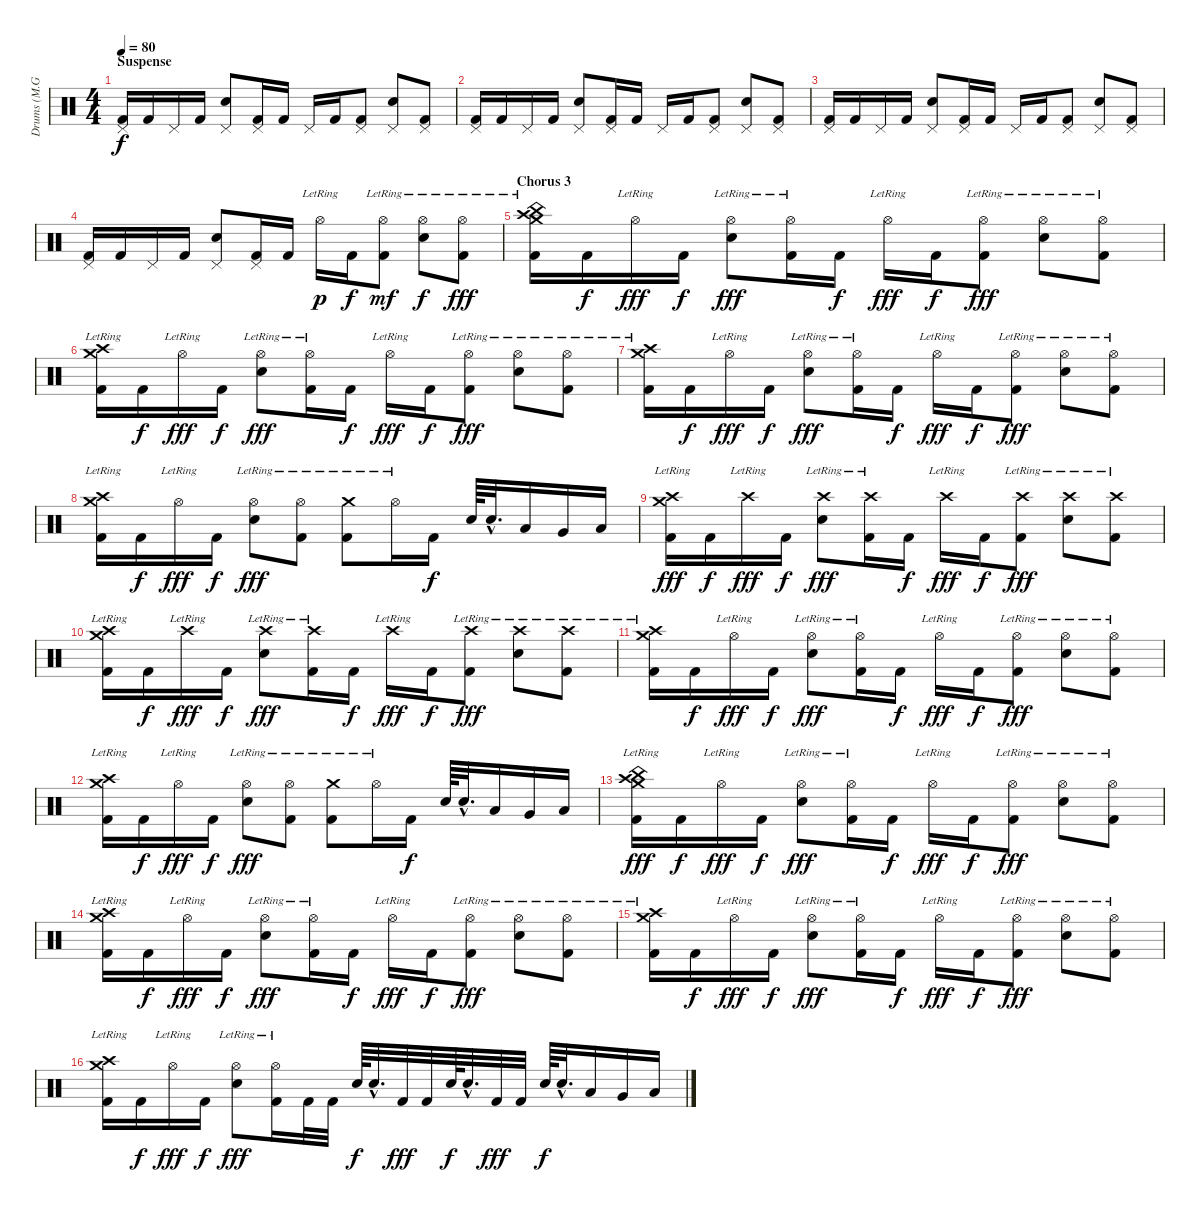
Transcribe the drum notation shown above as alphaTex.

\track ("Drums (M.Grosskopf)" "Drums (M.G") {instrument percussion}
\staff {score}
\articulation defaults
\ts (4 4)
\section ("" "Suspense")
\tempo 80
\clef neutral
\ks c
("Pedal Hi-Hat (hit)" "Kick (hit) 2").16{dy f} "Kick (hit) 2".16 "Pedal Hi-Hat (hit)".16 "Kick (hit) 2".16 ("Pedal Hi-Hat (hit)" "Electric Snare (hit)").8 ("Pedal Hi-Hat (hit)" "Kick (hit) 2").16 "Kick (hit) 2".16 "Pedal Hi-Hat (hit)".16 "Kick (hit) 2".16 ("Pedal Hi-Hat (hit)" "Kick (hit) 2").8 ("Pedal Hi-Hat (hit)" "Electric Snare (hit)").8 ("Pedal Hi-Hat (hit)" "Kick (hit) 2").8 |
("Pedal Hi-Hat (hit)" "Kick (hit) 2").16 "Kick (hit) 2".16 "Pedal Hi-Hat (hit)".16 "Kick (hit) 2".16 ("Pedal Hi-Hat (hit)" "Electric Snare (hit)").8 ("Pedal Hi-Hat (hit)" "Kick (hit) 2").16 "Kick (hit) 2".16 "Pedal Hi-Hat (hit)".16 "Kick (hit) 2".16 ("Pedal Hi-Hat (hit)" "Kick (hit) 2").8 ("Pedal Hi-Hat (hit)" "Electric Snare (hit)").8 ("Pedal Hi-Hat (hit)" "Kick (hit) 2").8 |
("Pedal Hi-Hat (hit)" "Kick (hit) 2").16 "Kick (hit) 2".16 "Pedal Hi-Hat (hit)".16 "Kick (hit) 2".16 ("Pedal Hi-Hat (hit)" "Electric Snare (hit)").8 ("Pedal Hi-Hat (hit)" "Kick (hit) 2").16 "Kick (hit) 2".16 "Pedal Hi-Hat (hit)".16 "Kick (hit) 2".16 ("Pedal Hi-Hat (hit)" "Kick (hit) 2").8 ("Pedal Hi-Hat (hit)" "Electric Snare (hit)").8 ("Pedal Hi-Hat (hit)" "Kick (hit) 2").8 |
("Pedal Hi-Hat (hit)" "Kick (hit) 2").16 "Kick (hit) 2".16 "Pedal Hi-Hat (hit)".16 "Kick (hit) 2".16 ("Pedal Hi-Hat (hit)" "Electric Snare (hit)").8 ("Pedal Hi-Hat (hit)" "Kick (hit) 2").16 "Kick (hit) 2".16 "Hi-Hat (open)"{lr}.16{dy p} "Kick (hit) 2".16{dy f} ("Hi-Hat (open)"{lr} "Kick (hit) 2").8{dy mf} ("Hi-Hat (open)"{lr} "Electric Snare (hit)").8{dy f} ("Hi-Hat (open)"{lr} "Kick (hit) 2").8{dy fff} |
\section ("" "Chorus 3")
("Crash high (hit)"{lr} "Crash medium (hit)"{lr} "Kick (hit) 2" "China (hit)"{lr}).16 "Kick (hit) 2".16{dy f} "Hi-Hat (open)"{lr}.16{dy fff} "Kick (hit) 2".16{dy f} ("Hi-Hat (open)"{lr} "Electric Snare (hit)").8{dy fff} ("Hi-Hat (open)"{lr} "Kick (hit) 2").16 "Kick (hit) 2".16{dy f} "Hi-Hat (open)"{lr}.16{dy fff} "Kick (hit) 2".16{dy f} ("Hi-Hat (open)"{lr} "Kick (hit) 2").8{dy fff} ("Hi-Hat (open)"{lr} "Electric Snare (hit)").8 ("Hi-Hat (open)"{lr} "Kick (hit) 2").8 |
("Crash high (hit)"{lr} "Crash medium (hit)"{lr} "Kick (hit) 2").16 "Kick (hit) 2".16{dy f} "Hi-Hat (open)"{lr}.16{dy fff} "Kick (hit) 2".16{dy f} ("Hi-Hat (open)"{lr} "Electric Snare (hit)").8{dy fff} ("Hi-Hat (open)"{lr} "Kick (hit) 2").16 "Kick (hit) 2".16{dy f} "Hi-Hat (open)"{lr}.16{dy fff} "Kick (hit) 2".16{dy f} ("Hi-Hat (open)"{lr} "Kick (hit) 2").8{dy fff} ("Hi-Hat (open)"{lr} "Electric Snare (hit)").8 ("Hi-Hat (open)"{lr} "Kick (hit) 2").8 |
("Crash high (hit)"{lr} "Crash medium (hit)"{lr} "Kick (hit) 2").16 "Kick (hit) 2".16{dy f} "Hi-Hat (open)"{lr}.16{dy fff} "Kick (hit) 2".16{dy f} ("Hi-Hat (open)"{lr} "Electric Snare (hit)").8{dy fff} ("Hi-Hat (open)"{lr} "Kick (hit) 2").16 "Kick (hit) 2".16{dy f} "Hi-Hat (open)"{lr}.16{dy fff} "Kick (hit) 2".16{dy f} ("Hi-Hat (open)"{lr} "Kick (hit) 2").8{dy fff} ("Hi-Hat (open)"{lr} "Electric Snare (hit)").8 ("Hi-Hat (open)"{lr} "Kick (hit) 2").8 |
("Crash high (hit)"{lr} "Crash medium (hit)"{lr} "Kick (hit) 2").16 "Kick (hit) 2".16{dy f} "Hi-Hat (open)"{lr}.16{dy fff} "Kick (hit) 2".16{dy f} ("Hi-Hat (open)"{lr} "Electric Snare (hit)").8{dy fff} ("Hi-Hat (open)"{lr} "Kick (hit) 2").8 ("Crash medium (hit)"{lr} "Kick (hit) 2").8 "Hi-Hat (open)"{lr}.16 "Kick (hit) 2".16{dy f} "Electric Snare (hit)".64 "Electric Snare (hit)"{hac}.32{d} "Low Tom (hit)".16 "Very Low Tom (hit)".16 "Low Floor Tom (hit)".16 |
("Crash high (hit)"{lr} "Crash medium (hit)"{lr} "Kick (hit) 2").16{dy fff} "Kick (hit) 2".16{dy f} "Crash high (hit)"{lr}.16{dy fff} "Kick (hit) 2".16{dy f} ("Crash high (hit)"{lr} "Electric Snare (hit)").8{dy fff} ("Crash high (hit)"{lr} "Kick (hit) 2").16 "Kick (hit) 2".16{dy f} "Crash high (hit)"{lr}.16{dy fff} "Kick (hit) 2".16{dy f} ("Crash high (hit)"{lr} "Kick (hit) 2").8{dy fff} ("Crash high (hit)"{lr} "Electric Snare (hit)").8 ("Crash high (hit)"{lr} "Kick (hit) 2").8 |
("Crash high (hit)"{lr} "Crash medium (hit)"{lr} "Kick (hit) 2").16 "Kick (hit) 2".16{dy f} "Crash high (hit)"{lr}.16{dy fff} "Kick (hit) 2".16{dy f} ("Crash high (hit)"{lr} "Electric Snare (hit)").8{dy fff} ("Crash high (hit)"{lr} "Kick (hit) 2").16 "Kick (hit) 2".16{dy f} "Crash high (hit)"{lr}.16{dy fff} "Kick (hit) 2".16{dy f} ("Crash high (hit)"{lr} "Kick (hit) 2").8{dy fff} ("Crash high (hit)"{lr} "Electric Snare (hit)").8 ("Crash high (hit)"{lr} "Kick (hit) 2").8 |
("Crash high (hit)"{lr} "Crash medium (hit)"{lr} "Kick (hit) 2").16 "Kick (hit) 2".16{dy f} "Hi-Hat (open)"{lr}.16{dy fff} "Kick (hit) 2".16{dy f} ("Hi-Hat (open)"{lr} "Electric Snare (hit)").8{dy fff} ("Hi-Hat (open)"{lr} "Kick (hit) 2").16 "Kick (hit) 2".16{dy f} "Hi-Hat (open)"{lr}.16{dy fff} "Kick (hit) 2".16{dy f} ("Hi-Hat (open)"{lr} "Kick (hit) 2").8{dy fff} ("Hi-Hat (open)"{lr} "Electric Snare (hit)").8 ("Hi-Hat (open)"{lr} "Kick (hit) 2").8 |
("Crash high (hit)"{lr} "Crash medium (hit)"{lr} "Kick (hit) 2").16 "Kick (hit) 2".16{dy f} "Hi-Hat (open)"{lr}.16{dy fff} "Kick (hit) 2".16{dy f} ("Hi-Hat (open)"{lr} "Electric Snare (hit)").8{dy fff} ("Hi-Hat (open)"{lr} "Kick (hit) 2").8 ("Crash medium (hit)"{lr} "Kick (hit) 2").8 "Hi-Hat (open)"{lr}.16 "Kick (hit) 2".16{dy f} "Electric Snare (hit)".64 "Electric Snare (hit)"{hac}.32{d} "Low Tom (hit)".16 "Very Low Tom (hit)".16 "Low Floor Tom (hit)".16 |
("Crash high (hit)"{lr} "Crash medium (hit)"{lr} "Kick (hit) 2" "China (hit)"{lr}).16{dy fff} "Kick (hit) 2".16{dy f} "Hi-Hat (open)"{lr}.16{dy fff} "Kick (hit) 2".16{dy f} ("Hi-Hat (open)"{lr} "Electric Snare (hit)").8{dy fff} ("Hi-Hat (open)"{lr} "Kick (hit) 2").16 "Kick (hit) 2".16{dy f} "Hi-Hat (open)"{lr}.16{dy fff} "Kick (hit) 2".16{dy f} ("Hi-Hat (open)"{lr} "Kick (hit) 2").8{dy fff} ("Hi-Hat (open)"{lr} "Electric Snare (hit)").8 ("Hi-Hat (open)"{lr} "Kick (hit) 2").8 |
("Crash high (hit)"{lr} "Crash medium (hit)"{lr} "Kick (hit) 2").16 "Kick (hit) 2".16{dy f} "Hi-Hat (open)"{lr}.16{dy fff} "Kick (hit) 2".16{dy f} ("Hi-Hat (open)"{lr} "Electric Snare (hit)").8{dy fff} ("Hi-Hat (open)"{lr} "Kick (hit) 2").16 "Kick (hit) 2".16{dy f} "Hi-Hat (open)"{lr}.16{dy fff} "Kick (hit) 2".16{dy f} ("Hi-Hat (open)"{lr} "Kick (hit) 2").8{dy fff} ("Hi-Hat (open)"{lr} "Electric Snare (hit)").8 ("Hi-Hat (open)"{lr} "Kick (hit) 2").8 |
("Crash high (hit)"{lr} "Crash medium (hit)"{lr} "Kick (hit) 2").16 "Kick (hit) 2".16{dy f} "Hi-Hat (open)"{lr}.16{dy fff} "Kick (hit) 2".16{dy f} ("Hi-Hat (open)"{lr} "Electric Snare (hit)").8{dy fff} ("Hi-Hat (open)"{lr} "Kick (hit) 2").16 "Kick (hit) 2".16{dy f} "Hi-Hat (open)"{lr}.16{dy fff} "Kick (hit) 2".16{dy f} ("Hi-Hat (open)"{lr} "Kick (hit) 2").8{dy fff} ("Hi-Hat (open)"{lr} "Electric Snare (hit)").8 ("Hi-Hat (open)"{lr} "Kick (hit) 2").8 |
("Crash high (hit)"{lr} "Crash medium (hit)"{lr} "Kick (hit) 2").16 "Kick (hit) 2".16{dy f} "Hi-Hat (open)"{lr}.16{dy fff} "Kick (hit) 2".16{dy f} ("Hi-Hat (open)"{lr} "Electric Snare (hit)").8{dy fff} ("Hi-Hat (open)"{lr} "Kick (hit) 2").16 "Kick (hit) 2".32 "Kick (hit) 2".32 "Electric Snare (hit)".64{dy f} "Electric Snare (hit)"{hac}.32{d} "Kick (hit) 2".32{dy fff} "Kick (hit) 2".32 "Electric Snare (hit)".64{dy f} "Electric Snare (hit)"{hac}.32{d} "Kick (hit) 2".32{dy fff} "Kick (hit) 2".32 "Electric Snare (hit)".64{dy f} "Electric Snare (hit)"{hac}.32{d} "Low Tom (hit)".16 "Very Low Tom (hit)".16 "Low Floor Tom (hit)".16
